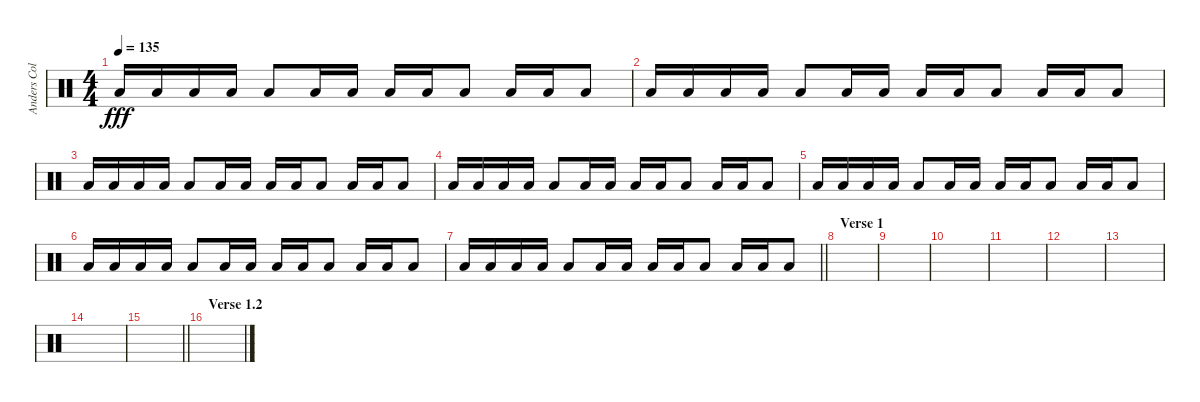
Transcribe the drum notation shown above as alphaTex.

\track ("Anders Colsefni" "Anders Col") {instrument percussion}
\staff {score}
\articulation defaults
\ts (4 4)
\tempo 135
\clef neutral
\ks c "Low Floor Tom (hit)".16{dy fff} "Low Floor Tom (hit)".16 "Low Floor Tom (hit)".16 "Low Floor Tom (hit)".16 "Low Floor Tom (hit)".8 "Low Floor Tom (hit)".16 "Low Floor Tom (hit)".16 "Low Floor Tom (hit)".16 "Low Floor Tom (hit)".16 "Low Floor Tom (hit)".8 "Low Floor Tom (hit)".16 "Low Floor Tom (hit)".16 "Low Floor Tom (hit)".8
|
"Low Floor Tom (hit)".16 "Low Floor Tom (hit)".16 "Low Floor Tom (hit)".16 "Low Floor Tom (hit)".16 "Low Floor Tom (hit)".8 "Low Floor Tom (hit)".16 "Low Floor Tom (hit)".16 "Low Floor Tom (hit)".16 "Low Floor Tom (hit)".16 "Low Floor Tom (hit)".8 "Low Floor Tom (hit)".16 "Low Floor Tom (hit)".16 "Low Floor Tom (hit)".8 |
"Low Floor Tom (hit)".16 "Low Floor Tom (hit)".16 "Low Floor Tom (hit)".16 "Low Floor Tom (hit)".16 "Low Floor Tom (hit)".8 "Low Floor Tom (hit)".16 "Low Floor Tom (hit)".16 "Low Floor Tom (hit)".16 "Low Floor Tom (hit)".16 "Low Floor Tom (hit)".8 "Low Floor Tom (hit)".16 "Low Floor Tom (hit)".16 "Low Floor Tom (hit)".8 |
"Low Floor Tom (hit)".16 "Low Floor Tom (hit)".16 "Low Floor Tom (hit)".16 "Low Floor Tom (hit)".16 "Low Floor Tom (hit)".8 "Low Floor Tom (hit)".16 "Low Floor Tom (hit)".16 "Low Floor Tom (hit)".16 "Low Floor Tom (hit)".16 "Low Floor Tom (hit)".8 "Low Floor Tom (hit)".16 "Low Floor Tom (hit)".16 "Low Floor Tom (hit)".8 |
"Low Floor Tom (hit)".16 "Low Floor Tom (hit)".16 "Low Floor Tom (hit)".16 "Low Floor Tom (hit)".16 "Low Floor Tom (hit)".8 "Low Floor Tom (hit)".16 "Low Floor Tom (hit)".16 "Low Floor Tom (hit)".16 "Low Floor Tom (hit)".16 "Low Floor Tom (hit)".8 "Low Floor Tom (hit)".16 "Low Floor Tom (hit)".16 "Low Floor Tom (hit)".8 |
"Low Floor Tom (hit)".16 "Low Floor Tom (hit)".16 "Low Floor Tom (hit)".16 "Low Floor Tom (hit)".16 "Low Floor Tom (hit)".8 "Low Floor Tom (hit)".16 "Low Floor Tom (hit)".16 "Low Floor Tom (hit)".16 "Low Floor Tom (hit)".16 "Low Floor Tom (hit)".8 "Low Floor Tom (hit)".16 "Low Floor Tom (hit)".16 "Low Floor Tom (hit)".8 |
\barLineRight lightlight "Low Floor Tom (hit)".16 "Low Floor Tom (hit)".16 "Low Floor Tom (hit)".16 "Low Floor Tom (hit)".16 "Low Floor Tom (hit)".8 "Low Floor Tom (hit)".16 "Low Floor Tom (hit)".16 "Low Floor Tom (hit)".16 "Low Floor Tom (hit)".16 "Low Floor Tom (hit)".8 "Low Floor Tom (hit)".16 "Low Floor Tom (hit)".16 "Low Floor Tom (hit)".8
|
\section ("" "Verse 1")
|
|
|
|
|
|
|
\barLineRight lightlight
|
\section ("" "Verse 1.2")
